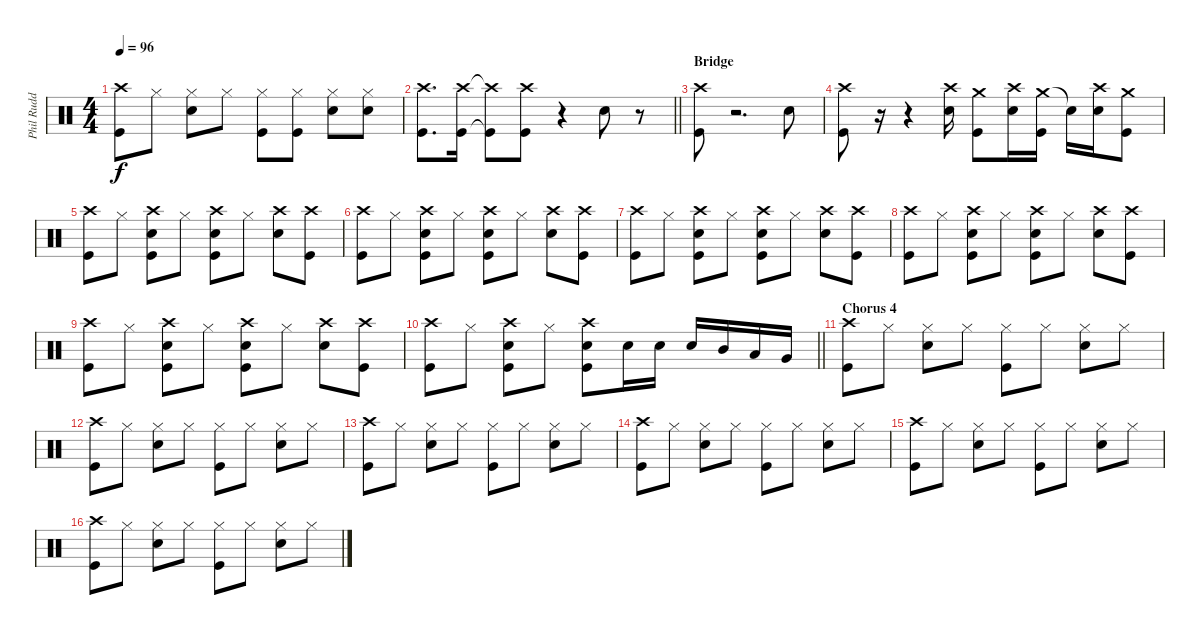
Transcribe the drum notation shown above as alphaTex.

\track ("Phil Rudd" "Phil Rudd") {instrument percussion}
\staff {score}
\articulation defaults
\ts (4 4)
\tempo 96
\clef neutral
\ks c
("Crash high (hit)" "Kick (hit)").8{dy f} "Hi-Hat (closed)".8 ("Hi-Hat (closed)" "Electric Snare (hit)").8 "Hi-Hat (closed)".8 ("Hi-Hat (closed)" "Kick (hit)").8 ("Hi-Hat (closed)" "Kick (hit)").8 ("Hi-Hat (closed)" "Electric Snare (hit)").8 ("Hi-Hat (closed)" "Electric Snare (hit)").8 |
\barLineRight lightlight
("Crash high (hit)" "Kick (hit)").8{d} ("Crash high (hit)" "Kick (hit)").16 ("Crash high (hit)"{t} "Kick (hit)"{t}).8 ("Crash high (hit)" "Kick (hit)").8 r.4 "Electric Snare (hit)".8 r.8 |
\section ("" "Bridge")
("Crash high (hit)" "Kick (hit)").8 r.2{d} "Electric Snare (hit)".8 |
("Crash high (hit)" "Kick (hit)").8 r.16 r.4 ("Crash high (hit)" "Electric Snare (hit)").16 ("Crash medium (hit)" "Kick (hit)").8 ("Crash high (hit)" "Electric Snare (hit)").16 ("Crash medium (hit)" "Kick (hit)").16 "Snare (hit)"{t}.16 ("Crash high (hit)" "Electric Snare (hit)").16 ("Crash medium (hit)" "Kick (hit)").8 |
("Crash high (hit)" "Kick (hit)").8 "Hi-Hat (closed)".8 ("Crash high (hit)" "Electric Snare (hit)" "Kick (hit)").8 "Hi-Hat (closed)".8 ("Crash high (hit)" "Electric Snare (hit)" "Kick (hit)").8 "Hi-Hat (closed)".8 ("Crash high (hit)" "Electric Snare (hit)").8 ("Crash high (hit)" "Kick (hit)").8 |
("Crash high (hit)" "Kick (hit)").8 "Hi-Hat (closed)".8 ("Crash high (hit)" "Electric Snare (hit)" "Kick (hit)").8 "Hi-Hat (closed)".8 ("Crash high (hit)" "Electric Snare (hit)" "Kick (hit)").8 "Hi-Hat (closed)".8 ("Crash high (hit)" "Electric Snare (hit)").8 ("Crash high (hit)" "Kick (hit)").8 |
("Crash high (hit)" "Kick (hit)").8 "Hi-Hat (closed)".8 ("Crash high (hit)" "Electric Snare (hit)" "Kick (hit)").8 "Hi-Hat (closed)".8 ("Crash high (hit)" "Electric Snare (hit)" "Kick (hit)").8 "Hi-Hat (closed)".8 ("Crash high (hit)" "Electric Snare (hit)").8 ("Crash high (hit)" "Kick (hit)").8 |
("Crash high (hit)" "Kick (hit)").8 "Hi-Hat (closed)".8 ("Crash high (hit)" "Electric Snare (hit)" "Kick (hit)").8 "Hi-Hat (closed)".8 ("Crash high (hit)" "Electric Snare (hit)" "Kick (hit)").8 "Hi-Hat (closed)".8 ("Crash high (hit)" "Electric Snare (hit)").8 ("Crash high (hit)" "Kick (hit)").8 |
("Crash high (hit)" "Kick (hit)").8 "Hi-Hat (closed)".8 ("Crash high (hit)" "Electric Snare (hit)" "Kick (hit)").8 "Hi-Hat (closed)".8 ("Crash high (hit)" "Electric Snare (hit)" "Kick (hit)").8 "Hi-Hat (closed)".8 ("Crash high (hit)" "Electric Snare (hit)").8 ("Crash high (hit)" "Kick (hit)").8 |
\barLineRight lightlight
("Crash high (hit)" "Kick (hit)").8 "Hi-Hat (closed)".8 ("Crash high (hit)" "Electric Snare (hit)" "Kick (hit)").8 "Hi-Hat (closed)".8 ("Crash high (hit)" "Electric Snare (hit)" "Kick (hit)").8 "Electric Snare (hit)".16 "Electric Snare (hit)".16 "Electric Snare (hit)".16 "Mid Tom (hit)".16 "Low Tom (hit)".16 "Very Low Tom (hit)".16 |
\section ("" "Chorus 4")
("Crash high (hit)" "Kick (hit)").8 "Hi-Hat (closed)".8 ("Hi-Hat (closed)" "Electric Snare (hit)").8 "Hi-Hat (closed)".8 ("Hi-Hat (closed)" "Kick (hit)").8 "Hi-Hat (closed)".8 ("Hi-Hat (closed)" "Electric Snare (hit)").8 "Hi-Hat (closed)".8 |
("Crash high (hit)" "Kick (hit)").8 "Hi-Hat (closed)".8 ("Hi-Hat (closed)" "Electric Snare (hit)").8 "Hi-Hat (closed)".8 ("Hi-Hat (closed)" "Kick (hit)").8 "Hi-Hat (closed)".8 ("Hi-Hat (closed)" "Electric Snare (hit)").8 "Hi-Hat (closed)".8 |
("Crash high (hit)" "Kick (hit)").8 "Hi-Hat (closed)".8 ("Hi-Hat (closed)" "Electric Snare (hit)").8 "Hi-Hat (closed)".8 ("Hi-Hat (closed)" "Kick (hit)").8 "Hi-Hat (closed)".8 ("Hi-Hat (closed)" "Electric Snare (hit)").8 "Hi-Hat (closed)".8 |
("Crash high (hit)" "Kick (hit)").8 "Hi-Hat (closed)".8 ("Hi-Hat (closed)" "Electric Snare (hit)").8 "Hi-Hat (closed)".8 ("Hi-Hat (closed)" "Kick (hit)").8 "Hi-Hat (closed)".8 ("Hi-Hat (closed)" "Electric Snare (hit)").8 "Hi-Hat (closed)".8 |
("Crash high (hit)" "Kick (hit)").8 "Hi-Hat (closed)".8 ("Hi-Hat (closed)" "Electric Snare (hit)").8 "Hi-Hat (closed)".8 ("Hi-Hat (closed)" "Kick (hit)").8 "Hi-Hat (closed)".8 ("Hi-Hat (closed)" "Electric Snare (hit)").8 "Hi-Hat (closed)".8 |
("Crash high (hit)" "Kick (hit)").8 "Hi-Hat (closed)".8 ("Hi-Hat (closed)" "Electric Snare (hit)").8 "Hi-Hat (closed)".8 ("Hi-Hat (closed)" "Kick (hit)").8 "Hi-Hat (closed)".8 ("Hi-Hat (closed)" "Electric Snare (hit)").8 "Hi-Hat (closed)".8
